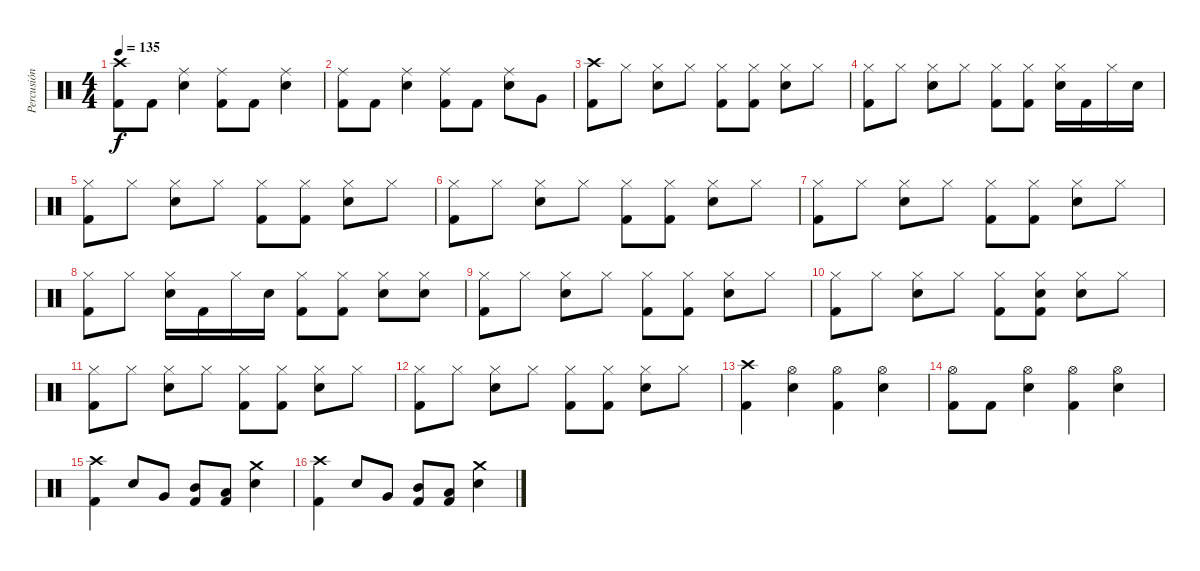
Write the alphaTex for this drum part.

\track ("Percusión" "Percusión") {instrument percussion}
\staff {score}
\articulation defaults
\ts (4 4)
\tempo 135
\clef neutral
\ks c
("Crash high (hit)" "Kick (hit) 2").8{dy f} "Kick (hit) 2".8 ("Ride (middle)" "Electric Snare (hit)").4 ("Ride (middle)" "Kick (hit) 2").8 "Kick (hit) 2".8 ("Ride (middle)" "Electric Snare (hit)").4 |
("Ride (middle)" "Kick (hit) 2").8 "Kick (hit) 2".8 ("Ride (middle)" "Electric Snare (hit)").4 ("Ride (middle)" "Kick (hit) 2").8 "Kick (hit) 2".8 ("Ride (middle)" "Electric Snare (hit)").8 "Very Low Tom (hit)".8 |
("Crash high (hit)" "Kick (hit) 2").8 "Hi-Hat (closed)".8 ("Hi-Hat (closed)" "Electric Snare (hit)").8 "Hi-Hat (closed)".8 ("Hi-Hat (closed)" "Kick (hit) 2").8 ("Hi-Hat (closed)" "Kick (hit) 2").8 ("Hi-Hat (closed)" "Electric Snare (hit)").8 "Hi-Hat (closed)".8 |
("Hi-Hat (closed)" "Kick (hit) 2").8 "Hi-Hat (closed)".8 ("Hi-Hat (closed)" "Electric Snare (hit)").8 "Hi-Hat (closed)".8 ("Hi-Hat (closed)" "Kick (hit) 2").8 ("Hi-Hat (closed)" "Kick (hit) 2").8 ("Hi-Hat (closed)" "Electric Snare (hit)").16 "Kick (hit) 2".16 "Hi-Hat (closed)".16 "Electric Snare (hit)".16 |
("Hi-Hat (closed)" "Kick (hit) 2").8 "Hi-Hat (closed)".8 ("Hi-Hat (closed)" "Electric Snare (hit)").8 "Hi-Hat (closed)".8 ("Hi-Hat (closed)" "Kick (hit) 2").8 ("Hi-Hat (closed)" "Kick (hit) 2").8 ("Hi-Hat (closed)" "Electric Snare (hit)").8 "Hi-Hat (closed)".8 |
("Hi-Hat (closed)" "Kick (hit) 2").8 "Hi-Hat (closed)".8 ("Hi-Hat (closed)" "Electric Snare (hit)").8 "Hi-Hat (closed)".8 ("Hi-Hat (closed)" "Kick (hit) 2").8 ("Hi-Hat (closed)" "Kick (hit) 2").8 ("Hi-Hat (closed)" "Electric Snare (hit)").8 "Hi-Hat (closed)".8 |
("Hi-Hat (closed)" "Kick (hit) 2").8 "Hi-Hat (closed)".8 ("Hi-Hat (closed)" "Electric Snare (hit)").8 "Hi-Hat (closed)".8 ("Hi-Hat (closed)" "Kick (hit) 2").8 ("Hi-Hat (closed)" "Kick (hit) 2").8 ("Hi-Hat (closed)" "Electric Snare (hit)").8 "Hi-Hat (closed)".8 |
("Hi-Hat (closed)" "Kick (hit) 2").8 "Hi-Hat (closed)".8 ("Hi-Hat (closed)" "Electric Snare (hit)").16 "Kick (hit) 2".16 "Hi-Hat (closed)".16 "Electric Snare (hit)".16 ("Hi-Hat (closed)" "Kick (hit) 2").8 ("Hi-Hat (closed)" "Kick (hit) 2").8 ("Hi-Hat (closed)" "Electric Snare (hit)").8 ("Hi-Hat (closed)" "Electric Snare (hit)").8 |
("Hi-Hat (closed)" "Kick (hit) 2").8 "Hi-Hat (closed)".8 ("Hi-Hat (closed)" "Electric Snare (hit)").8 "Hi-Hat (closed)".8 ("Hi-Hat (closed)" "Kick (hit) 2").8 ("Hi-Hat (closed)" "Kick (hit) 2").8 ("Hi-Hat (closed)" "Electric Snare (hit)").8 "Hi-Hat (closed)".8 |
("Hi-Hat (closed)" "Kick (hit) 2").8 "Hi-Hat (closed)".8 ("Hi-Hat (closed)" "Electric Snare (hit)").8 "Hi-Hat (closed)".8 ("Hi-Hat (closed)" "Kick (hit) 2").8 ("Hi-Hat (closed)" "Electric Snare (hit)" "Kick (hit) 2").8 ("Hi-Hat (closed)" "Electric Snare (hit)").8 "Hi-Hat (closed)".8 |
("Hi-Hat (closed)" "Kick (hit) 2").8 "Hi-Hat (closed)".8 ("Hi-Hat (closed)" "Electric Snare (hit)").8 "Hi-Hat (closed)".8 ("Hi-Hat (closed)" "Kick (hit) 2").8 ("Hi-Hat (closed)" "Kick (hit) 2").8 ("Hi-Hat (closed)" "Electric Snare (hit)").8 "Hi-Hat (closed)".8 |
("Hi-Hat (closed)" "Kick (hit) 2").8 "Hi-Hat (closed)".8 ("Hi-Hat (closed)" "Electric Snare (hit)").8 "Hi-Hat (closed)".8 ("Hi-Hat (closed)" "Kick (hit) 2").8 ("Hi-Hat (closed)" "Kick (hit) 2").8 ("Hi-Hat (closed)" "Electric Snare (hit)").8 "Hi-Hat (closed)".8 |
("Crash high (hit)" "Kick (hit) 2").4 ("Hi-Hat (open)" "Electric Snare (hit)").4 ("Hi-Hat (open)" "Kick (hit) 2").4 ("Hi-Hat (open)" "Electric Snare (hit)").4 |
("Hi-Hat (open)" "Kick (hit) 2").8 "Kick (hit) 2".8 ("Hi-Hat (open)" "Electric Snare (hit)").4 ("Hi-Hat (open)" "Kick (hit) 2").4 ("Hi-Hat (open)" "Electric Snare (hit)").4 |
("Crash high (hit)" "Kick (hit) 2").4 "Electric Snare (hit)".8 "Very Low Tom (hit)".8 ("Mid Tom (hit)" "Kick (hit) 2").8 ("Low Tom (hit)" "Kick (hit) 2").8 ("Crash medium (hit)" "Electric Snare (hit)").4 |
("Crash high (hit)" "Kick (hit) 2").4 "Electric Snare (hit)".8 "Very Low Tom (hit)".8 ("Mid Tom (hit)" "Kick (hit) 2").8 ("Low Tom (hit)" "Kick (hit) 2").8 ("Crash medium (hit)" "Electric Snare (hit)").4
